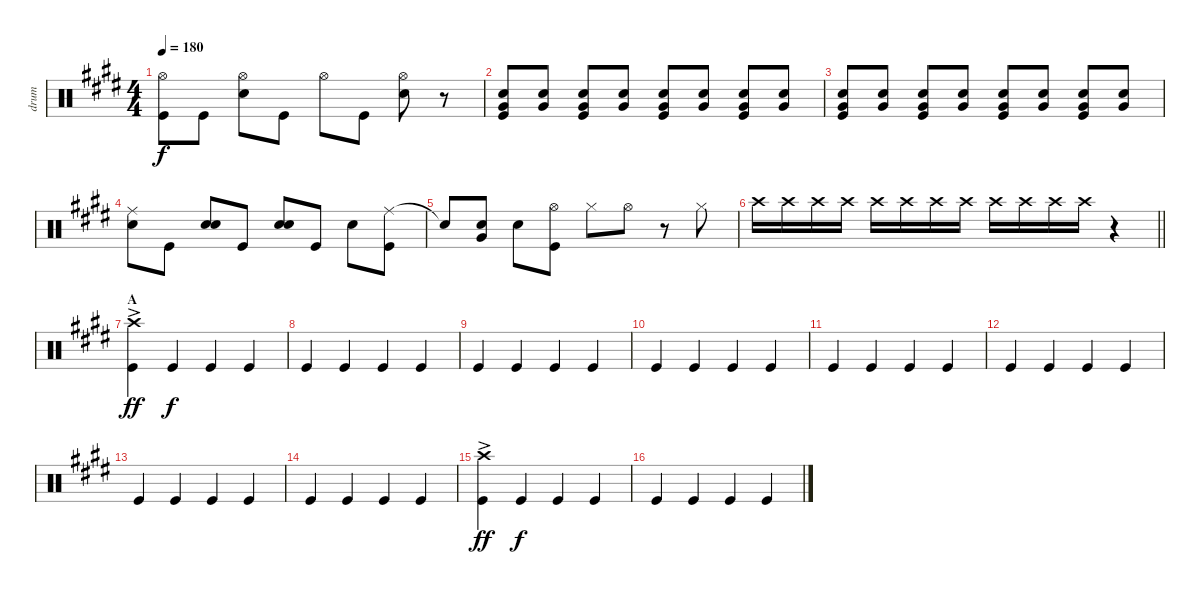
\track ("drum" "drum") {instrument percussion}
\staff {score}
\articulation defaults
\ts (4 4)
\tempo 180
\clef neutral
\ks e
("Hi-Hat (open)" "Kick (hit)").8{dy f} "Kick (hit)".8 ("Hi-Hat (open)" "Snare (hit) 2").8 "Kick (hit)".8 "Hi-Hat (open)".8 "Kick (hit)".8 ("Hi-Hat (open)" "Snare (hit) 2").8 r.8{volume 8} |
("Snare (hit) 2" "Very Low Tom (hit)" "Kick (hit)").8{volume 15} ("Snare (hit) 2" "Very Low Tom (hit)").8 ("Snare (hit) 2" "Very Low Tom (hit)" "Kick (hit)").8 ("Snare (hit) 2" "Very Low Tom (hit)").8 ("Snare (hit) 2" "Very Low Tom (hit)" "Kick (hit)").8 ("Snare (hit) 2" "Very Low Tom (hit)").8 ("Snare (hit) 2" "Very Low Tom (hit)" "Kick (hit)").8 ("Snare (hit) 2" "Very Low Tom (hit)").8 |
("Snare (hit) 2" "Very Low Tom (hit)" "Kick (hit)").8 ("Snare (hit) 2" "Very Low Tom (hit)").8 ("Snare (hit) 2" "Very Low Tom (hit)" "Kick (hit)").8 ("Snare (hit) 2" "Very Low Tom (hit)").8 ("Snare (hit) 2" "Very Low Tom (hit)" "Kick (hit)").8 ("Snare (hit) 2" "Very Low Tom (hit)").8 ("Snare (hit) 2" "Very Low Tom (hit)" "Kick (hit)").8 ("Snare (hit) 2" "Very Low Tom (hit)").8 |
("Ride (middle)" "Snare (hit) 2").8 "Kick (hit)".8 ("Snare (hit) 2" "Snare (hit) 2").8 "Kick (hit)".8 ("Snare (hit) 2" "Snare (hit) 2").8 "Kick (hit)".8 "Snare (hit) 2".8 ("Ride (middle)" "Kick (hit)").8 |
"Snare (hit)"{t}.8 ("Snare (hit) 2" "Very Low Tom (hit)").8 "Snare (hit) 2".8 ("Hi-Hat (open)" "Kick (hit)").8 "Hi-Hat (closed)".8 "Hi-Hat (open)".8 r.8 "Hi-Hat (closed)".8 |
\barLineRight lightlight "Crash high (hit)".16{volume 6} "Crash high (hit)".16{volume 15} "Crash high (hit)".16 "Crash high (hit)".16 "Crash high (hit)".16 "Crash high (hit)".16 "Crash high (hit)".16 "Crash high (hit)".16 "Crash high (hit)".16 "Crash high (hit)".16 "Crash high (hit)".16 "Crash high (hit)".16
r.4 |
\section ("" "A")
("Crash high (hit)"{ac} "Kick (hit)").4{dy ff} "Kick (hit)".4{dy f} "Kick (hit)".4 "Kick (hit)".4 |
"Kick (hit)".4 "Kick (hit)".4 "Kick (hit)".4 "Kick (hit)".4 |
"Kick (hit)".4 "Kick (hit)".4 "Kick (hit)".4 "Kick (hit)".4 |
"Kick (hit)".4 "Kick (hit)".4 "Kick (hit)".4 "Kick (hit)".4 |
"Kick (hit)".4 "Kick (hit)".4 "Kick (hit)".4 "Kick (hit)".4 |
"Kick (hit)".4 "Kick (hit)".4 "Kick (hit)".4 "Kick (hit)".4 |
"Kick (hit)".4 "Kick (hit)".4 "Kick (hit)".4 "Kick (hit)".4 |
"Kick (hit)".4 "Kick (hit)".4 "Kick (hit)".4 "Kick (hit)".4 |
("Crash high (hit)"{ac} "Kick (hit)").4{dy ff} "Kick (hit)".4{dy f} "Kick (hit)".4 "Kick (hit)".4 |
"Kick (hit)".4 "Kick (hit)".4 "Kick (hit)".4 "Kick (hit)".4
